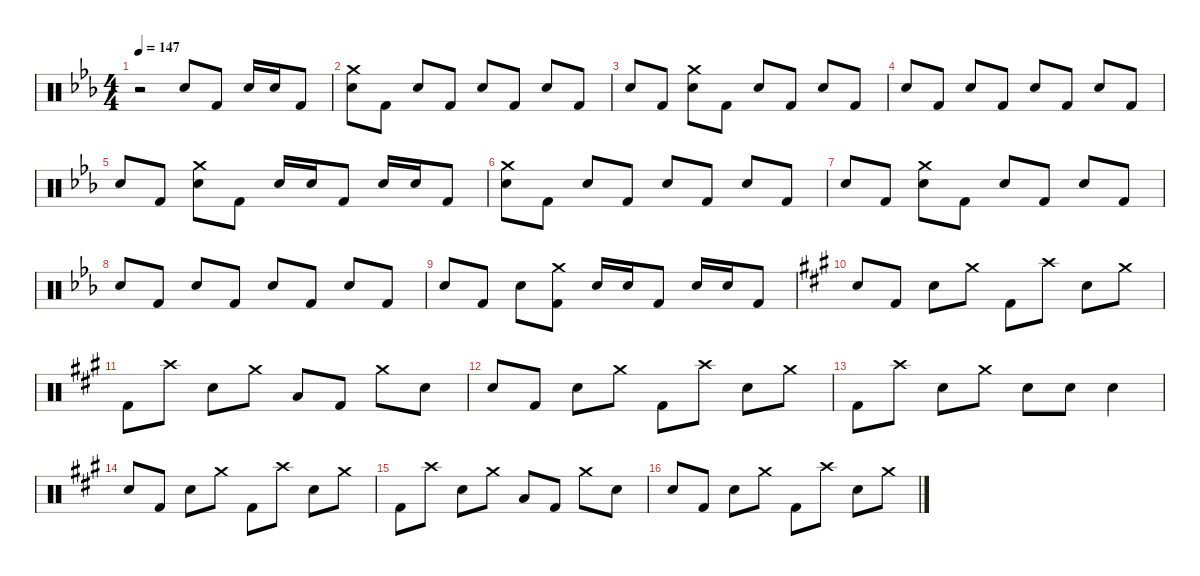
\defaultSystemsLayout 4
\hideDynamics
\bracketExtendMode nobrackets
\singleTrackTrackNamePolicy hidden
\multiTrackTrackNamePolicy hidden
\firstSystemTrackNameMode fullname
\firstSystemTrackNameOrientation horizontal
\otherSystemsTrackNameOrientation horizontal
\track ("Beats" "drm.") {instrument percussion}
\staff {score}
\articulation defaults
\ts (4 4)
\beaming (8 2 2 2 2)
\tempo 147
\clef neutral
\ks eb
r.2{dy f beam Down} "Snare (hit) 2"{acc forcenatural}.8{beam Up} "Kick (hit) 2"{acc forcenatural}.8{beam Up} "Snare (hit) 2"{acc forcenatural}.16{beam Up} "Snare (hit) 2"{acc forcenatural}.16{beam Up} "Kick (hit) 2"{acc forcenatural}.8{beam Up} |
("Crash medium (hit)"{acc forcenatural} "Snare (hit) 2"{acc forcenatural}).8{beam Down} "Kick (hit) 2"{acc forcenatural}.8{beam Down} "Snare (hit) 2"{acc forcenatural}.8{beam Up} "Kick (hit) 2"{acc forcenatural}.8{beam Up} "Snare (hit) 2"{acc forcenatural}.8{beam Up} "Kick (hit) 2"{acc forcenatural}.8{beam Up} "Snare (hit) 2"{acc forcenatural}.8{beam Up} "Kick (hit) 2"{acc forcenatural}.8{beam Up} |
"Snare (hit) 2"{acc forcenatural}.8{beam Up} "Kick (hit) 2"{acc forcenatural}.8{beam Up} ("Crash medium (hit)"{acc forcenatural} "Snare (hit) 2"{acc forcenatural}).8{beam Down} "Kick (hit) 2"{acc forcenatural}.8{beam Down} "Snare (hit) 2"{acc forcenatural}.8{beam Up} "Kick (hit) 2"{acc forcenatural}.8{beam Up} "Snare (hit) 2"{acc forcenatural}.8{beam Up} "Kick (hit) 2"{acc forcenatural}.8{beam Up} |
"Snare (hit) 2"{acc forcenatural}.8{beam Up} "Kick (hit) 2"{acc forcenatural}.8{beam Up} "Snare (hit) 2"{acc forcenatural}.8{beam Up} "Kick (hit) 2"{acc forcenatural}.8{beam Up} "Snare (hit) 2"{acc forcenatural}.8{beam Up} "Kick (hit) 2"{acc forcenatural}.8{beam Up} "Snare (hit) 2"{acc forcenatural}.8{beam Up} "Kick (hit) 2"{acc forcenatural}.8{beam Up} |
"Snare (hit) 2"{acc forcenatural}.8{beam Up} "Kick (hit) 2"{acc forcenatural}.8{beam Up} ("Crash medium (hit)"{acc forcenatural} "Snare (hit) 2"{acc forcenatural}).8{beam Down} "Kick (hit) 2"{acc forcenatural}.8{beam Down} "Snare (hit) 2"{acc forcenatural}.16{beam Up} "Snare (hit) 2"{acc forcenatural}.16{beam Up} "Kick (hit) 2"{acc forcenatural}.8{beam Up} "Snare (hit) 2"{acc forcenatural}.16{beam Up} "Snare (hit) 2"{acc forcenatural}.16{beam Up} "Kick (hit) 2"{acc forcenatural}.8{beam Up} |
("Crash medium (hit)"{acc forcenatural} "Snare (hit) 2"{acc forcenatural}).8{beam Down} "Kick (hit) 2"{acc forcenatural}.8{beam Down} "Snare (hit) 2"{acc forcenatural}.8{beam Up} "Kick (hit) 2"{acc forcenatural}.8{beam Up} "Snare (hit) 2"{acc forcenatural}.8{beam Up} "Kick (hit) 2"{acc forcenatural}.8{beam Up} "Snare (hit) 2"{acc forcenatural}.8{beam Up} "Kick (hit) 2"{acc forcenatural}.8{beam Up} |
"Snare (hit) 2"{acc forcenatural}.8{beam Up} "Kick (hit) 2"{acc forcenatural}.8{beam Up} ("Crash medium (hit)"{acc forcenatural} "Snare (hit) 2"{acc forcenatural}).8{beam Down} "Kick (hit) 2"{acc forcenatural}.8{beam Down} "Snare (hit) 2"{acc forcenatural}.8{beam Up} "Kick (hit) 2"{acc forcenatural}.8{beam Up} "Snare (hit) 2"{acc forcenatural}.8{beam Up} "Kick (hit) 2"{acc forcenatural}.8{beam Up} |
"Snare (hit) 2"{acc forcenatural}.8{beam Up} "Kick (hit) 2"{acc forcenatural}.8{beam Up} "Snare (hit) 2"{acc forcenatural}.8{beam Up} "Kick (hit) 2"{acc forcenatural}.8{beam Up} "Snare (hit) 2"{acc forcenatural}.8{beam Up} "Kick (hit) 2"{acc forcenatural}.8{beam Up} "Snare (hit) 2"{acc forcenatural}.8{beam Up} "Kick (hit) 2"{acc forcenatural}.8{beam Up} |
"Snare (hit) 2"{acc forcenatural}.8{beam Up} "Kick (hit) 2"{acc forcenatural}.8{beam Up} "Snare (hit) 2"{acc forcenatural}.8{beam Down} ("Crash medium (hit)"{acc forcenatural} "Kick (hit) 2"{acc forcenatural}).8{beam Down} "Snare (hit) 2"{acc forcenatural}.16{beam Up} "Snare (hit) 2"{acc forcenatural}.16{beam Up} "Kick (hit) 2"{acc forcenatural}.8{beam Up} "Snare (hit) 2"{acc forcenatural}.16{beam Up} "Snare (hit) 2"{acc forcenatural}.16{beam Up} "Kick (hit) 2"{acc forcenatural}.8{beam Up} |
\ks a "Snare (hit) 2"{acc forcenatural}.8{beam Up} "Kick (hit) 2"{acc forcenatural}.8{beam Up} "Snare (hit) 2"{acc forcenatural}.8{beam Down} "Crash medium (hit)"{acc forcenatural}.8{beam Down} "Kick (hit) 2"{acc forcenatural}.8{beam Down} "Crash high (hit)"{acc forcenatural}.8{beam Down} "Snare (hit) 2"{acc forcenatural}.8{beam Down} "Crash medium (hit)"{acc forcenatural}.8{beam Down}
|
"Kick (hit) 2"{acc forcenatural}.8{beam Down} "Crash high (hit)"{acc forcenatural}.8{beam Down} "Snare (hit) 2"{acc forcenatural}.8{beam Down} "Crash medium (hit)"{acc forcenatural}.8{beam Down} "Low Tom (hit)"{acc forcenatural}.8{beam Up} "Kick (hit) 2"{acc forcenatural}.8{beam Up} "Crash medium (hit)"{acc forcenatural}.8{beam Down} "Snare (hit) 2"{acc forcenatural}.8{beam Down} |
"Snare (hit) 2"{acc forcenatural}.8{beam Up} "Kick (hit) 2"{acc forcenatural}.8{beam Up} "Snare (hit) 2"{acc forcenatural}.8{beam Down} "Crash medium (hit)"{acc forcenatural}.8{beam Down} "Kick (hit) 2"{acc forcenatural}.8{beam Down} "Crash high (hit)"{acc forcenatural}.8{beam Down} "Snare (hit) 2"{acc forcenatural}.8{beam Down} "Crash medium (hit)"{acc forcenatural}.8{beam Down} |
"Kick (hit) 2"{acc forcenatural}.8{beam Down} "Crash high (hit)"{acc forcenatural}.8{beam Down} "Snare (hit) 2"{acc forcenatural}.8{beam Down} "Crash medium (hit)"{acc forcenatural}.8{beam Down} "Snare (hit) 2"{acc forcenatural}.8{beam Down} "Snare (hit) 2"{acc forcenatural}.8{beam Down} "Snare (hit) 2"{acc forcenatural}.4{beam Down} |
"Snare (hit) 2"{acc forcenatural}.8{beam Up} "Kick (hit) 2"{acc forcenatural}.8{beam Up} "Snare (hit) 2"{acc forcenatural}.8{beam Down} "Crash medium (hit)"{acc forcenatural}.8{beam Down} "Kick (hit) 2"{acc forcenatural}.8{beam Down} "Crash high (hit)"{acc forcenatural}.8{beam Down} "Snare (hit) 2"{acc forcenatural}.8{beam Down} "Crash medium (hit)"{acc forcenatural}.8{beam Down} |
"Kick (hit) 2"{acc forcenatural}.8{beam Down} "Crash high (hit)"{acc forcenatural}.8{beam Down} "Snare (hit) 2"{acc forcenatural}.8{beam Down} "Crash medium (hit)"{acc forcenatural}.8{beam Down} "Low Tom (hit)"{acc forcenatural}.8{beam Up} "Kick (hit) 2"{acc forcenatural}.8{beam Up} "Crash medium (hit)"{acc forcenatural}.8{beam Down} "Snare (hit) 2"{acc forcenatural}.8{beam Down} |
"Snare (hit) 2"{acc forcenatural}.8{beam Up} "Kick (hit) 2"{acc forcenatural}.8{beam Up} "Snare (hit) 2"{acc forcenatural}.8{beam Down} "Crash medium (hit)"{acc forcenatural}.8{beam Down} "Kick (hit) 2"{acc forcenatural}.8{beam Down} "Crash high (hit)"{acc forcenatural}.8{beam Down} "Snare (hit) 2"{acc forcenatural}.8{beam Down} "Crash medium (hit)"{acc forcenatural}.8{beam Down}
